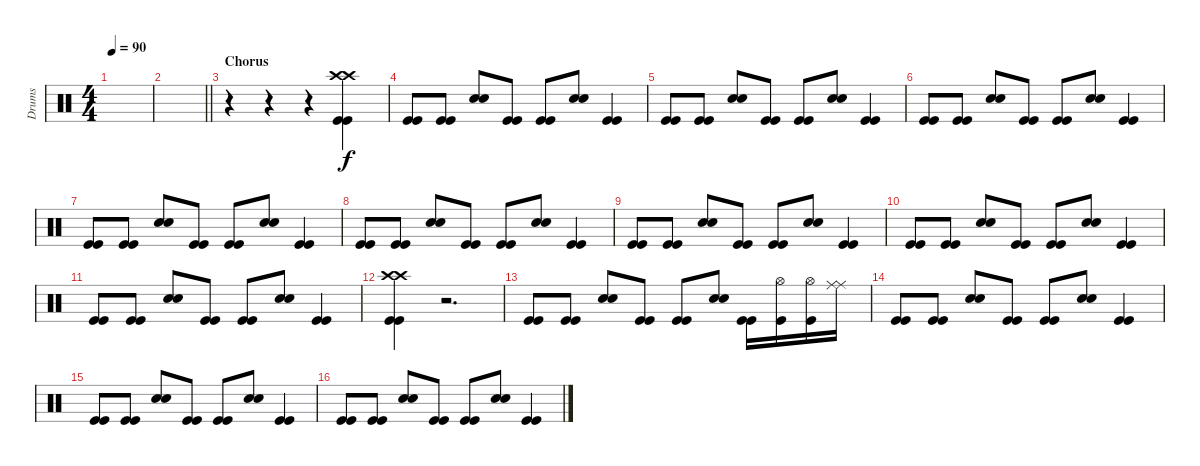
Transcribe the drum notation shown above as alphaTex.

\track ("Drums" "Drums") {instrument percussion}
\staff {score}
\articulation defaults
\ts (4 4)
\tempo 90
\clef neutral
\ks c
|
\barLineRight lightlight
|
\section ("" "Chorus")
r.4 r.4 r.4 ("Crash high (hit)" "Kick (hit)" "Kick (hit)" "Crash high (hit)").4 |
("Kick (hit)" "Kick (hit)").8 ("Kick (hit)" "Kick (hit)").8 ("Electric Snare (hit)" "Electric Snare (hit)").8 ("Kick (hit)" "Kick (hit)").8 ("Kick (hit)" "Kick (hit)").8 ("Electric Snare (hit)" "Electric Snare (hit)").8 ("Kick (hit)" "Kick (hit)").4 |
("Kick (hit)" "Kick (hit)").8 ("Kick (hit)" "Kick (hit)").8 ("Electric Snare (hit)" "Electric Snare (hit)").8 ("Kick (hit)" "Kick (hit)").8 ("Kick (hit)" "Kick (hit)").8 ("Electric Snare (hit)" "Electric Snare (hit)").8 ("Kick (hit)" "Kick (hit)").4 |
("Kick (hit)" "Kick (hit)").8 ("Kick (hit)" "Kick (hit)").8 ("Electric Snare (hit)" "Electric Snare (hit)").8 ("Kick (hit)" "Kick (hit)").8 ("Kick (hit)" "Kick (hit)").8 ("Electric Snare (hit)" "Electric Snare (hit)").8 ("Kick (hit)" "Kick (hit)").4 |
("Kick (hit)" "Kick (hit)").8 ("Kick (hit)" "Kick (hit)").8 ("Electric Snare (hit)" "Electric Snare (hit)").8 ("Kick (hit)" "Kick (hit)").8 ("Kick (hit)" "Kick (hit)").8 ("Electric Snare (hit)" "Electric Snare (hit)").8 ("Kick (hit)" "Kick (hit)").4 |
("Kick (hit)" "Kick (hit)").8 ("Kick (hit)" "Kick (hit)").8 ("Electric Snare (hit)" "Electric Snare (hit)").8 ("Kick (hit)" "Kick (hit)").8 ("Kick (hit)" "Kick (hit)").8 ("Electric Snare (hit)" "Electric Snare (hit)").8 ("Kick (hit)" "Kick (hit)").4 |
("Kick (hit)" "Kick (hit)").8 ("Kick (hit)" "Kick (hit)").8 ("Electric Snare (hit)" "Electric Snare (hit)").8 ("Kick (hit)" "Kick (hit)").8 ("Kick (hit)" "Kick (hit)").8 ("Electric Snare (hit)" "Electric Snare (hit)").8 ("Kick (hit)" "Kick (hit)").4 |
("Kick (hit)" "Kick (hit)").8 ("Kick (hit)" "Kick (hit)").8 ("Electric Snare (hit)" "Electric Snare (hit)").8 ("Kick (hit)" "Kick (hit)").8 ("Kick (hit)" "Kick (hit)").8 ("Electric Snare (hit)" "Electric Snare (hit)").8 ("Kick (hit)" "Kick (hit)").4 |
("Kick (hit)" "Kick (hit)").8 ("Kick (hit)" "Kick (hit)").8 ("Electric Snare (hit)" "Electric Snare (hit)").8 ("Kick (hit)" "Kick (hit)").8 ("Kick (hit)" "Kick (hit)").8 ("Electric Snare (hit)" "Electric Snare (hit)").8 ("Kick (hit)" "Kick (hit)").4 |
("Kick (hit)" "Crash high (hit)" "Kick (hit)" "Crash high (hit)").4 r.2{d} |
("Kick (hit)" "Kick (hit)").8 ("Kick (hit)" "Kick (hit)").8 ("Electric Snare (hit)" "Electric Snare (hit)").8 ("Kick (hit)" "Kick (hit)").8 ("Kick (hit)" "Kick (hit)").8 ("Electric Snare (hit)" "Electric Snare (hit)").8 ("Kick (hit)" "Kick (hit)").16 ("Hi-Hat (open)" "Kick (hit)").16 ("Hi-Hat (open)" "Kick (hit)").16 ("Ride (middle)" "Ride (middle)").16 |
("Kick (hit)" "Kick (hit)").8 ("Kick (hit)" "Kick (hit)").8 ("Electric Snare (hit)" "Electric Snare (hit)").8 ("Kick (hit)" "Kick (hit)").8 ("Kick (hit)" "Kick (hit)").8 ("Electric Snare (hit)" "Electric Snare (hit)").8 ("Kick (hit)" "Kick (hit)").4 |
("Kick (hit)" "Kick (hit)").8 ("Kick (hit)" "Kick (hit)").8 ("Electric Snare (hit)" "Electric Snare (hit)").8 ("Kick (hit)" "Kick (hit)").8 ("Kick (hit)" "Kick (hit)").8 ("Electric Snare (hit)" "Electric Snare (hit)").8 ("Kick (hit)" "Kick (hit)").4 |
("Kick (hit)" "Kick (hit)").8 ("Kick (hit)" "Kick (hit)").8 ("Electric Snare (hit)" "Electric Snare (hit)").8 ("Kick (hit)" "Kick (hit)").8 ("Kick (hit)" "Kick (hit)").8 ("Electric Snare (hit)" "Electric Snare (hit)").8 ("Kick (hit)" "Kick (hit)").4
